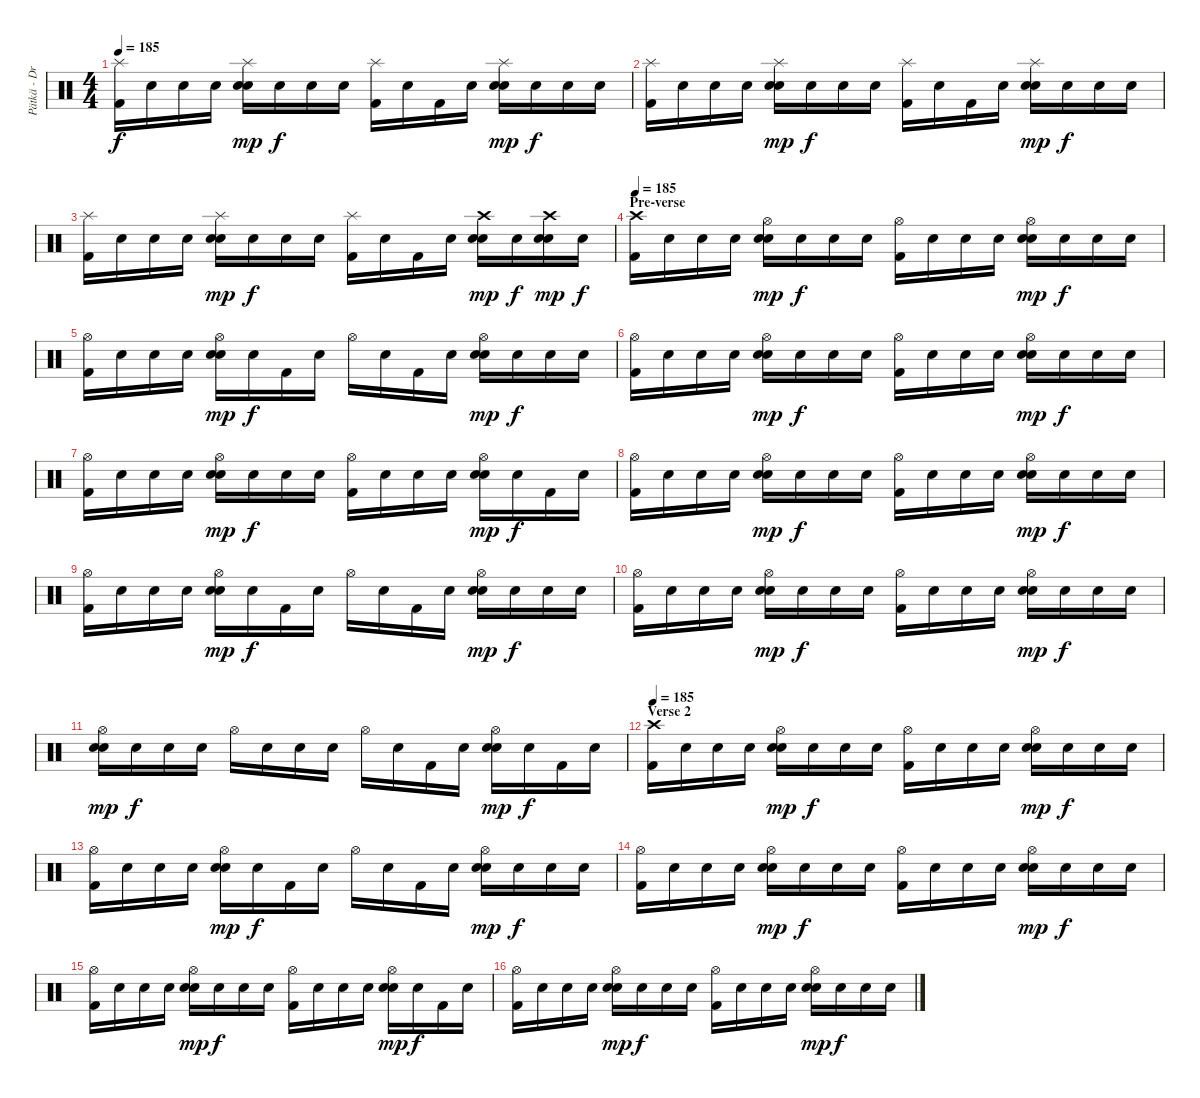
\track ("Pätkä - Drums" "Pätkä - Dr") {instrument percussion}
\staff {score}
\articulation defaults
\ts (4 4)
\tempo 185
\clef neutral
\ks c
("Splash (hit)" "Kick (hit) 2").16{dy f} "Snare (hit)".16 "Snare (hit)".16 "Snare (hit)".16 ("Splash (hit)" "Electric Snare (hit)" "Snare (hit) 2").16{dy mp} "Snare (hit)".16{dy f} "Snare (hit)".16 "Snare (hit)".16 ("Splash (hit)" "Kick (hit) 2").16 "Snare (hit)".16 "Kick (hit) 2".16 "Snare (hit)".16 ("Splash (hit)" "Electric Snare (hit)" "Snare (hit) 2").16{dy mp} "Snare (hit)".16{dy f} "Snare (hit)".16 "Snare (hit)".16 |
("Splash (hit)" "Kick (hit) 2").16 "Snare (hit)".16 "Snare (hit)".16 "Snare (hit)".16 ("Splash (hit)" "Electric Snare (hit)" "Snare (hit) 2").16{dy mp} "Snare (hit)".16{dy f} "Snare (hit)".16 "Snare (hit)".16 ("Splash (hit)" "Kick (hit) 2").16 "Snare (hit)".16 "Kick (hit) 2".16 "Snare (hit)".16 ("Splash (hit)" "Electric Snare (hit)" "Snare (hit) 2").16{dy mp} "Snare (hit)".16{dy f} "Snare (hit)".16 "Snare (hit)".16 |
("Splash (hit)" "Kick (hit) 2").16 "Snare (hit)".16 "Snare (hit)".16 "Snare (hit)".16 ("Splash (hit)" "Electric Snare (hit)" "Snare (hit) 2").16{dy mp} "Snare (hit)".16{dy f} "Snare (hit)".16 "Snare (hit)".16 ("Splash (hit)" "Kick (hit) 2").16 "Snare (hit)".16 "Kick (hit) 2".16 "Snare (hit)".16 ("Crash high (hit)" "Electric Snare (hit)" "Snare (hit) 2").16{dy mp} "Snare (hit)".16{dy f} ("Crash high (hit)" "Electric Snare (hit)" "Snare (hit) 2").16{dy mp} "Snare (hit)".16{dy f} |
\section ("" "Pre-verse")
\tempo 185
("Crash high (hit)" "Kick (hit) 2").16{volume 16 balance 8} "Snare (hit)".16 "Snare (hit)".16 "Snare (hit)".16 ("Hi-Hat (open)" "Electric Snare (hit)" "Snare (hit) 2").16{dy mp} "Snare (hit)".16{dy f} "Snare (hit)".16 "Snare (hit)".16 ("Hi-Hat (open)" "Kick (hit) 2").16 "Snare (hit)".16 "Snare (hit)".16 "Snare (hit)".16 ("Hi-Hat (open)" "Electric Snare (hit)" "Snare (hit) 2").16{dy mp} "Snare (hit)".16{dy f} "Snare (hit)".16 "Snare (hit)".16 |
("Hi-Hat (open)" "Kick (hit) 2").16 "Snare (hit)".16 "Snare (hit)".16 "Snare (hit)".16 ("Hi-Hat (open)" "Electric Snare (hit)" "Snare (hit) 2").16{dy mp} "Snare (hit)".16{dy f} "Kick (hit) 2".16 "Snare (hit)".16 "Hi-Hat (open)".16 "Snare (hit)".16 "Kick (hit) 2".16 "Snare (hit)".16 ("Hi-Hat (open)" "Electric Snare (hit)" "Snare (hit) 2").16{dy mp} "Snare (hit)".16{dy f} "Snare (hit)".16 "Snare (hit)".16 |
("Hi-Hat (open)" "Kick (hit) 2").16 "Snare (hit)".16 "Snare (hit)".16 "Snare (hit)".16 ("Hi-Hat (open)" "Electric Snare (hit)" "Snare (hit) 2").16{dy mp} "Snare (hit)".16{dy f} "Snare (hit)".16 "Snare (hit)".16 ("Hi-Hat (open)" "Kick (hit) 2").16 "Snare (hit)".16 "Snare (hit)".16 "Snare (hit)".16 ("Hi-Hat (open)" "Electric Snare (hit)" "Snare (hit) 2").16{dy mp} "Snare (hit)".16{dy f} "Snare (hit)".16 "Snare (hit)".16 |
("Hi-Hat (open)" "Kick (hit) 2").16 "Snare (hit)".16 "Snare (hit)".16 "Snare (hit)".16 ("Hi-Hat (open)" "Electric Snare (hit)" "Snare (hit) 2").16{dy mp} "Snare (hit)".16{dy f} "Snare (hit)".16 "Snare (hit)".16 ("Hi-Hat (open)" "Kick (hit) 2").16 "Snare (hit)".16 "Snare (hit)".16 "Snare (hit)".16 ("Hi-Hat (open)" "Electric Snare (hit)" "Snare (hit) 2").16{dy mp} "Snare (hit)".16{dy f} "Kick (hit) 2".16 "Snare (hit)".16 |
("Hi-Hat (open)" "Kick (hit) 2").16 "Snare (hit)".16 "Snare (hit)".16 "Snare (hit)".16 ("Hi-Hat (open)" "Electric Snare (hit)" "Snare (hit) 2").16{dy mp} "Snare (hit)".16{dy f} "Snare (hit)".16 "Snare (hit)".16 ("Hi-Hat (open)" "Kick (hit) 2").16 "Snare (hit)".16 "Snare (hit)".16 "Snare (hit)".16 ("Hi-Hat (open)" "Electric Snare (hit)" "Snare (hit) 2").16{dy mp} "Snare (hit)".16{dy f} "Snare (hit)".16 "Snare (hit)".16 |
("Hi-Hat (open)" "Kick (hit) 2").16 "Snare (hit)".16 "Snare (hit)".16 "Snare (hit)".16 ("Hi-Hat (open)" "Electric Snare (hit)" "Snare (hit) 2").16{dy mp} "Snare (hit)".16{dy f} "Kick (hit) 2".16 "Snare (hit)".16 "Hi-Hat (open)".16 "Snare (hit)".16 "Kick (hit) 2".16 "Snare (hit)".16 ("Hi-Hat (open)" "Electric Snare (hit)" "Snare (hit) 2").16{dy mp} "Snare (hit)".16{dy f} "Snare (hit)".16 "Snare (hit)".16 |
("Hi-Hat (open)" "Kick (hit) 2").16 "Snare (hit)".16 "Snare (hit)".16 "Snare (hit)".16 ("Hi-Hat (open)" "Electric Snare (hit)" "Snare (hit) 2").16{dy mp} "Snare (hit)".16{dy f} "Snare (hit)".16 "Snare (hit)".16 ("Hi-Hat (open)" "Kick (hit) 2").16 "Snare (hit)".16 "Snare (hit)".16 "Snare (hit)".16 ("Hi-Hat (open)" "Electric Snare (hit)" "Snare (hit) 2").16{dy mp} "Snare (hit)".16{dy f} "Snare (hit)".16 "Snare (hit)".16 |
("Hi-Hat (open)" "Electric Snare (hit)" "Snare (hit) 2").16{dy mp} "Snare (hit)".16{dy f} "Snare (hit)".16 "Snare (hit)".16 "Hi-Hat (open)".16 "Snare (hit)".16 "Snare (hit)".16 "Snare (hit)".16 "Hi-Hat (open)".16 "Snare (hit)".16 "Kick (hit) 2".16 "Snare (hit)".16 ("Hi-Hat (open)" "Electric Snare (hit)" "Snare (hit) 2").16{dy mp} "Snare (hit)".16{dy f} "Kick (hit) 2".16 "Snare (hit)".16 |
\section ("" "Verse 2")
\tempo 185
("Crash high (hit)" "Kick (hit) 2").16{volume 16 balance 8} "Snare (hit)".16 "Snare (hit)".16 "Snare (hit)".16 ("Hi-Hat (open)" "Electric Snare (hit)" "Snare (hit) 2").16{dy mp} "Snare (hit)".16{dy f} "Snare (hit)".16 "Snare (hit)".16 ("Hi-Hat (open)" "Kick (hit) 2").16 "Snare (hit)".16 "Snare (hit)".16 "Snare (hit)".16 ("Hi-Hat (open)" "Electric Snare (hit)" "Snare (hit) 2").16{dy mp} "Snare (hit)".16{dy f} "Snare (hit)".16 "Snare (hit)".16 |
("Hi-Hat (open)" "Kick (hit) 2").16 "Snare (hit)".16 "Snare (hit)".16 "Snare (hit)".16 ("Hi-Hat (open)" "Electric Snare (hit)" "Snare (hit) 2").16{dy mp} "Snare (hit)".16{dy f} "Kick (hit) 2".16 "Snare (hit)".16 "Hi-Hat (open)".16 "Snare (hit)".16 "Kick (hit) 2".16 "Snare (hit)".16 ("Hi-Hat (open)" "Electric Snare (hit)" "Snare (hit) 2").16{dy mp} "Snare (hit)".16{dy f} "Snare (hit)".16 "Snare (hit)".16 |
("Hi-Hat (open)" "Kick (hit) 2").16 "Snare (hit)".16 "Snare (hit)".16 "Snare (hit)".16 ("Hi-Hat (open)" "Electric Snare (hit)" "Snare (hit) 2").16{dy mp} "Snare (hit)".16{dy f} "Snare (hit)".16 "Snare (hit)".16 ("Hi-Hat (open)" "Kick (hit) 2").16 "Snare (hit)".16 "Snare (hit)".16 "Snare (hit)".16 ("Hi-Hat (open)" "Electric Snare (hit)" "Snare (hit) 2").16{dy mp} "Snare (hit)".16{dy f} "Snare (hit)".16 "Snare (hit)".16 |
("Hi-Hat (open)" "Kick (hit) 2").16 "Snare (hit)".16 "Snare (hit)".16 "Snare (hit)".16 ("Hi-Hat (open)" "Electric Snare (hit)" "Snare (hit) 2").16{dy mp} "Snare (hit)".16{dy f} "Snare (hit)".16 "Snare (hit)".16 ("Hi-Hat (open)" "Kick (hit) 2").16 "Snare (hit)".16 "Snare (hit)".16 "Snare (hit)".16 ("Hi-Hat (open)" "Electric Snare (hit)" "Snare (hit) 2").16{dy mp} "Snare (hit)".16{dy f} "Kick (hit) 2".16 "Snare (hit)".16 |
("Hi-Hat (open)" "Kick (hit) 2").16 "Snare (hit)".16 "Snare (hit)".16 "Snare (hit)".16 ("Hi-Hat (open)" "Electric Snare (hit)" "Snare (hit) 2").16{dy mp} "Snare (hit)".16{dy f} "Snare (hit)".16 "Snare (hit)".16 ("Hi-Hat (open)" "Kick (hit) 2").16 "Snare (hit)".16 "Snare (hit)".16 "Snare (hit)".16 ("Hi-Hat (open)" "Electric Snare (hit)" "Snare (hit) 2").16{dy mp} "Snare (hit)".16{dy f} "Snare (hit)".16 "Snare (hit)".16
